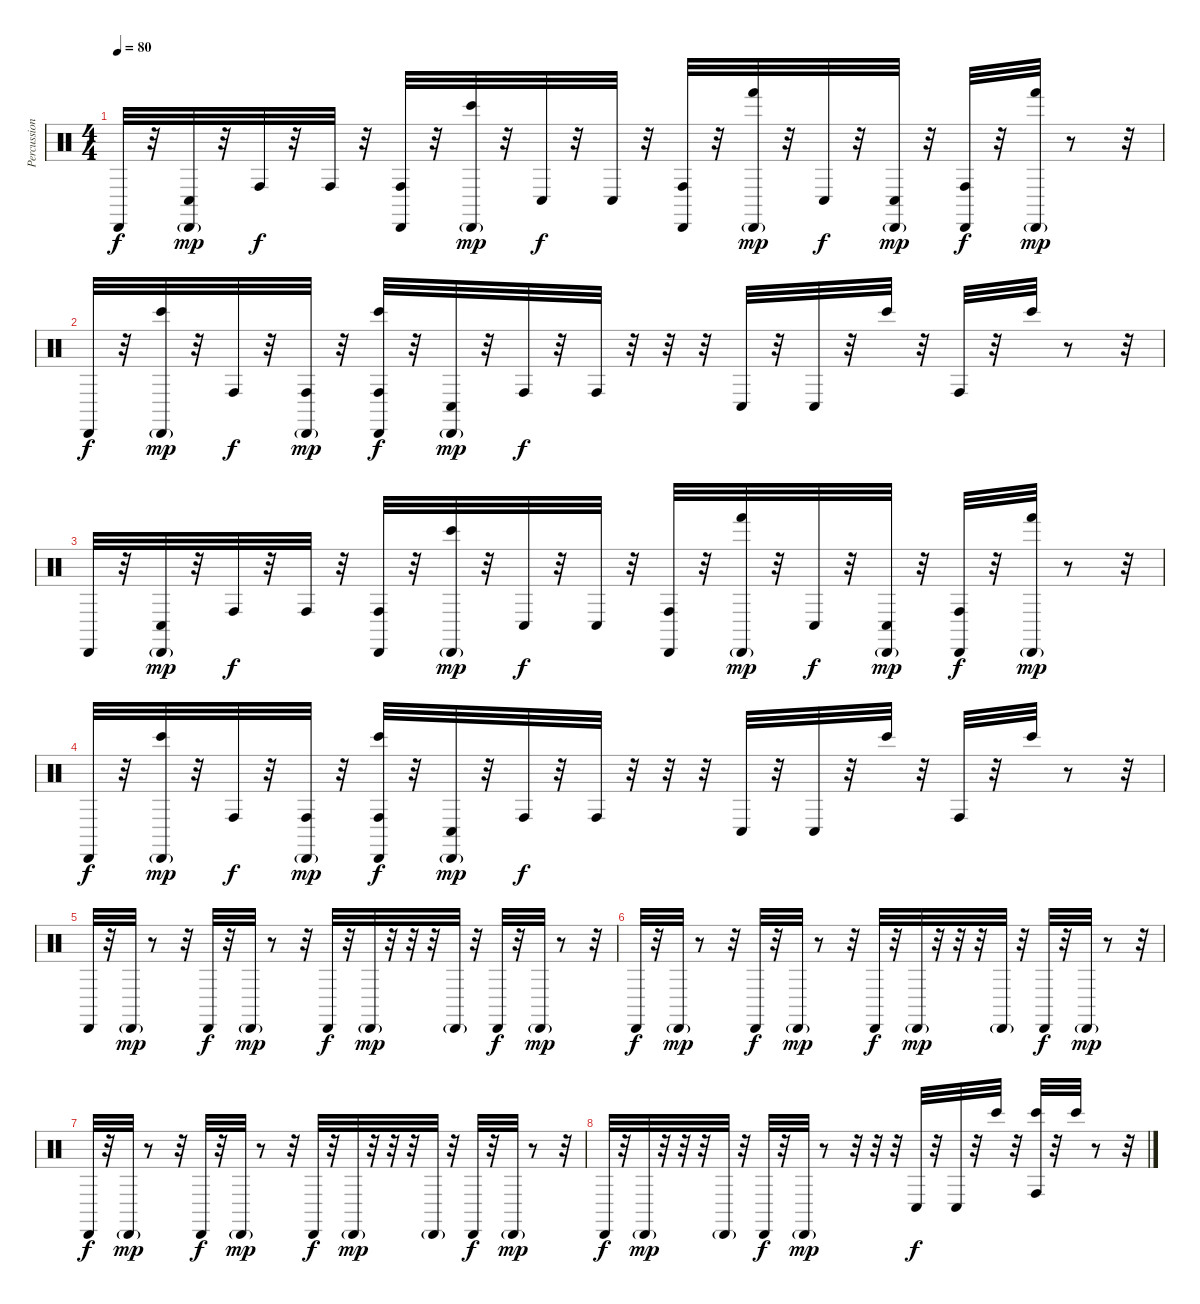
\track ("Percussion" "Percussion") {instrument percussion}
\staff {score}
\articulation defaults
\ts (4 4)
\tempo 80
\clef neutral
\ks c "Cabasa (hit)".32{dy f}
r.32 ("Cabasa (hit)"{g} "Conga low (hit)").32{dy mp} r.32 "Conga high (hit)".32{dy f} r.32 "Conga high (hit)".32 r.32 ("Cabasa (hit)" "Conga high (hit)").32 r.32 ("Cabasa (hit)"{g} "Bongo High (hit)").32{dy mp} r.32 "Conga low (hit)".32{dy f} r.32 "Conga low (hit)".32 r.32 ("Cabasa (hit)" "Conga high (hit)").32 r.32 ("Cabasa (hit)"{g} "Hand (hit)").32{dy mp} r.32 "Conga low (hit)".32{dy f} r.32 ("Cabasa (hit)"{g} "Conga low (hit)").32{dy mp} r.32 ("Cabasa (hit)" "Conga high (hit)").32{dy f} r.32 ("Cabasa (hit)"{g} "Hand (hit)").32{dy mp} r.8 r.32 |
"Cabasa (hit)".32{dy f} r.32 ("Cabasa (hit)"{g} "Bongo High (hit)").32{dy mp} r.32 "Conga high (hit)".32{dy f} r.32 ("Cabasa (hit)"{g} "Conga high (hit)").32{dy mp} r.32 ("Cabasa (hit)" "Conga high (hit)" "Bongo High (hit)").32{dy f} r.32 ("Cabasa (hit)"{g} "Conga low (hit)").32{dy mp} r.32 "Conga high (hit)".32{dy f} r.32 "Conga high (hit)".32 r.32 r.32 r.32 "Conga low (hit)".32 r.32 "Conga low (hit)".32 r.32 "Bongo High (hit)".32 r.32 "Conga high (hit)".32 r.32 "Bongo High (hit)".32 r.8 r.32 |
"Cabasa (hit)".32 r.32 ("Cabasa (hit)"{g} "Conga low (hit)").32{dy mp} r.32 "Conga high (hit)".32{dy f} r.32 "Conga high (hit)".32 r.32 ("Cabasa (hit)" "Conga high (hit)").32 r.32 ("Cabasa (hit)"{g} "Bongo High (hit)").32{dy mp} r.32 "Conga low (hit)".32{dy f} r.32 "Conga low (hit)".32 r.32 ("Cabasa (hit)" "Conga high (hit)").32 r.32 ("Cabasa (hit)"{g} "Hand (hit)").32{dy mp} r.32 "Conga low (hit)".32{dy f} r.32 ("Cabasa (hit)"{g} "Conga low (hit)").32{dy mp} r.32 ("Cabasa (hit)" "Conga high (hit)").32{dy f} r.32 ("Cabasa (hit)"{g} "Hand (hit)").32{dy mp} r.8 r.32 |
"Cabasa (hit)".32{dy f} r.32 ("Cabasa (hit)"{g} "Bongo High (hit)").32{dy mp} r.32 "Conga high (hit)".32{dy f} r.32 ("Cabasa (hit)"{g} "Conga high (hit)").32{dy mp} r.32 ("Cabasa (hit)" "Conga high (hit)" "Bongo High (hit)").32{dy f} r.32 ("Cabasa (hit)"{g} "Conga low (hit)").32{dy mp} r.32 "Conga high (hit)".32{dy f} r.32 "Conga high (hit)".32 r.32 r.32 r.32 "Conga low (hit)".32 r.32 "Conga low (hit)".32 r.32 "Bongo High (hit)".32 r.32 "Conga high (hit)".32 r.32 "Bongo High (hit)".32 r.8 r.32 |
"Cabasa (hit)".32 r.32 "Cabasa (hit)"{g}.32{dy mp} r.8 r.32 "Cabasa (hit)".32{dy f} r.32 "Cabasa (hit)"{g}.32{dy mp} r.8 r.32 "Cabasa (hit)".32{dy f} r.32 "Cabasa (hit)"{g}.32{dy mp} r.32 r.32 r.32 "Cabasa (hit)"{g}.32 r.32 "Cabasa (hit)".32{dy f} r.32 "Cabasa (hit)"{g}.32{dy mp} r.8 r.32 |
"Cabasa (hit)".32{dy f} r.32 "Cabasa (hit)"{g}.32{dy mp} r.8 r.32 "Cabasa (hit)".32{dy f} r.32 "Cabasa (hit)"{g}.32{dy mp} r.8 r.32 "Cabasa (hit)".32{dy f} r.32 "Cabasa (hit)"{g}.32{dy mp} r.32 r.32 r.32 "Cabasa (hit)"{g}.32 r.32 "Cabasa (hit)".32{dy f} r.32 "Cabasa (hit)"{g}.32{dy mp} r.8 r.32 |
"Cabasa (hit)".32{dy f} r.32 "Cabasa (hit)"{g}.32{dy mp} r.8 r.32 "Cabasa (hit)".32{dy f} r.32 "Cabasa (hit)"{g}.32{dy mp} r.8 r.32 "Cabasa (hit)".32{dy f} r.32 "Cabasa (hit)"{g}.32{dy mp} r.32 r.32 r.32 "Cabasa (hit)"{g}.32 r.32 "Cabasa (hit)".32{dy f} r.32 "Cabasa (hit)"{g}.32{dy mp} r.8 r.32 |
"Cabasa (hit)".32{dy f} r.32 "Cabasa (hit)"{g}.32{dy mp} r.32 r.32 r.32 "Cabasa (hit)"{g}.32 r.32 "Cabasa (hit)".32{dy f} r.32 "Cabasa (hit)"{g}.32{dy mp} r.8 r.32 r.32 r.32 "Conga low (hit)".32{dy f} r.32 "Conga low (hit)".32 r.32 "Bongo High (hit)".32 r.32 ("Conga high (hit)" "Bongo High (hit)").32 r.32 "Bongo High (hit)".32 r.8 r.32
